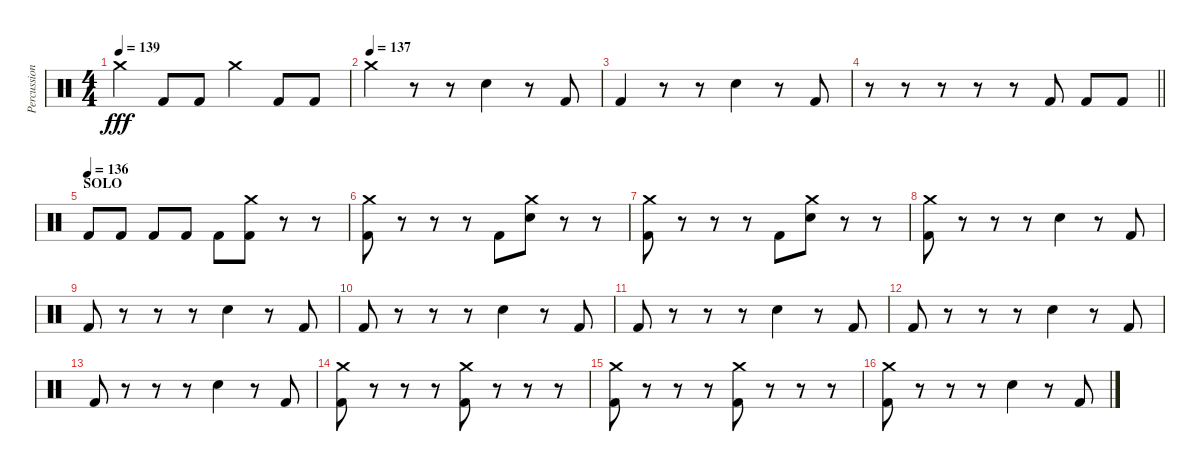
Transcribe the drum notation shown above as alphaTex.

\track ("Percussion" "Percussion") {instrument percussion}
\staff {score}
\articulation defaults
\ts (4 4)
\tempo 139
\clef neutral
\ks c "Crash medium (hit)".4{dy fff} "Kick (hit) 2".8 "Kick (hit) 2".8 "Crash medium (hit)".4 "Kick (hit) 2".8 "Kick (hit) 2".8
|
\tempo (137)
"Crash medium (hit)".4 r.8 r.8 "Electric Snare (hit)".4 r.8 "Kick (hit) 2".8 |
"Kick (hit) 2".4 r.8 r.8 "Electric Snare (hit)".4 r.8 "Kick (hit) 2".8 |
\barLineRight lightlight
r.8 r.8 r.8 r.8 r.8 "Kick (hit) 2".8 "Kick (hit) 2".8 "Kick (hit) 2".8 |
\section ("" "SOLO")
\tempo (136)
"Kick (hit) 2".8 "Kick (hit) 2".8 "Kick (hit) 2".8 "Kick (hit) 2".8 "Kick (hit) 2".8 ("Kick (hit) 2" "Crash medium (hit)").8 r.8 r.8 |
("Kick (hit) 2" "Crash medium (hit)").8 r.8 r.8 r.8 "Kick (hit) 2".8 ("Electric Snare (hit)" "Crash medium (hit)").8 r.8 r.8 |
("Kick (hit) 2" "Crash medium (hit)").8 r.8 r.8 r.8 "Kick (hit) 2".8 ("Electric Snare (hit)" "Crash medium (hit)").8 r.8 r.8 |
("Kick (hit) 2" "Crash medium (hit)").8 r.8 r.8 r.8 "Electric Snare (hit)".4 r.8 "Kick (hit) 2".8 |
"Kick (hit) 2".8 r.8 r.8 r.8 "Electric Snare (hit)".4 r.8 "Kick (hit) 2".8 |
"Kick (hit) 2".8 r.8 r.8 r.8 "Electric Snare (hit)".4 r.8 "Kick (hit) 2".8 |
"Kick (hit) 2".8 r.8 r.8 r.8 "Electric Snare (hit)".4 r.8 "Kick (hit) 2".8 |
"Kick (hit) 2".8 r.8 r.8 r.8 "Electric Snare (hit)".4 r.8 "Kick (hit) 2".8 |
"Kick (hit) 2".8 r.8 r.8 r.8 "Electric Snare (hit)".4 r.8 "Kick (hit) 2".8 |
("Kick (hit) 2" "Crash medium (hit)").8 r.8 r.8 r.8 ("Kick (hit) 2" "Crash medium (hit)").8 r.8 r.8 r.8 |
("Kick (hit) 2" "Crash medium (hit)").8 r.8 r.8 r.8 ("Kick (hit) 2" "Crash medium (hit)").8 r.8 r.8 r.8 |
("Kick (hit) 2" "Crash medium (hit)").8 r.8 r.8 r.8 "Electric Snare (hit)".4 r.8 "Kick (hit) 2".8
